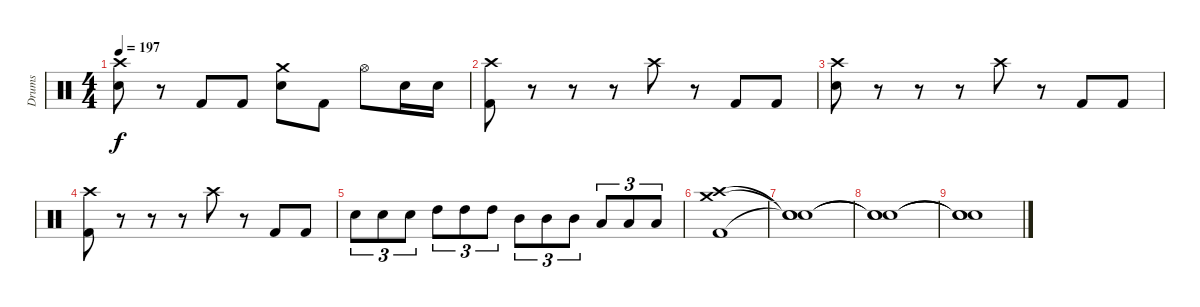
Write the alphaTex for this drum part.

\track ("Drums" "Drums") {instrument percussion}
\staff {score}
\articulation defaults
\ts (4 4)
\tempo 197
\clef neutral
\ks c
("Crash high (hit)" "Electric Snare (hit)").8{dy f} r.8 "Kick (hit) 2".8 "Kick (hit) 2".8 ("Crash medium (hit)" "Electric Snare (hit)").8 "Kick (hit) 2".8 "Hi-Hat (open)".8 "Electric Snare (hit)".16 "Electric Snare (hit)".16 |
("Crash high (hit)" "Kick (hit) 2").8 r.8 r.8 r.8 "Crash high (hit)".8 r.8 "Kick (hit) 2".8 "Kick (hit) 2".8 |
("Crash high (hit)" "Electric Snare (hit)").8 r.8 r.8 r.8 "Crash high (hit)".8 r.8 "Kick (hit) 2".8 "Kick (hit) 2".8 |
("Crash high (hit)" "Kick (hit) 2").8 r.8 r.8 r.8 "Crash high (hit)".8 r.8 "Kick (hit) 2".8 "Kick (hit) 2".8 |
"Electric Snare (hit)".8{tu (3 2)} "Electric Snare (hit)".8{tu (3 2)} "Electric Snare (hit)".8{tu (3 2)} "High Tom (hit)".8{tu (3 2)} "High Tom (hit)".8{tu (3 2)} "High Tom (hit)".8{tu (3 2)} "Mid Tom (hit)".8{tu (3 2)} "Mid Tom (hit)".8{tu (3 2)} "Mid Tom (hit)".8{tu (3 2)} "Low Tom (hit)".8{tu (3 2)} "Low Tom (hit)".8{tu (3 2)} "Low Tom (hit)".8{tu (3 2)} |
("Crash medium (hit)" "Crash high (hit)" "Kick (hit) 2").1 |
("Snare (hit)"{t} "Snare (hit)"{t} "Snare (hit)"{t}).1 |
("Snare (hit)"{t} "Snare (hit)"{t} "Snare (hit)"{t}).1 |
("Snare (hit)"{t} "Snare (hit)"{t} "Snare (hit)"{t}).1
